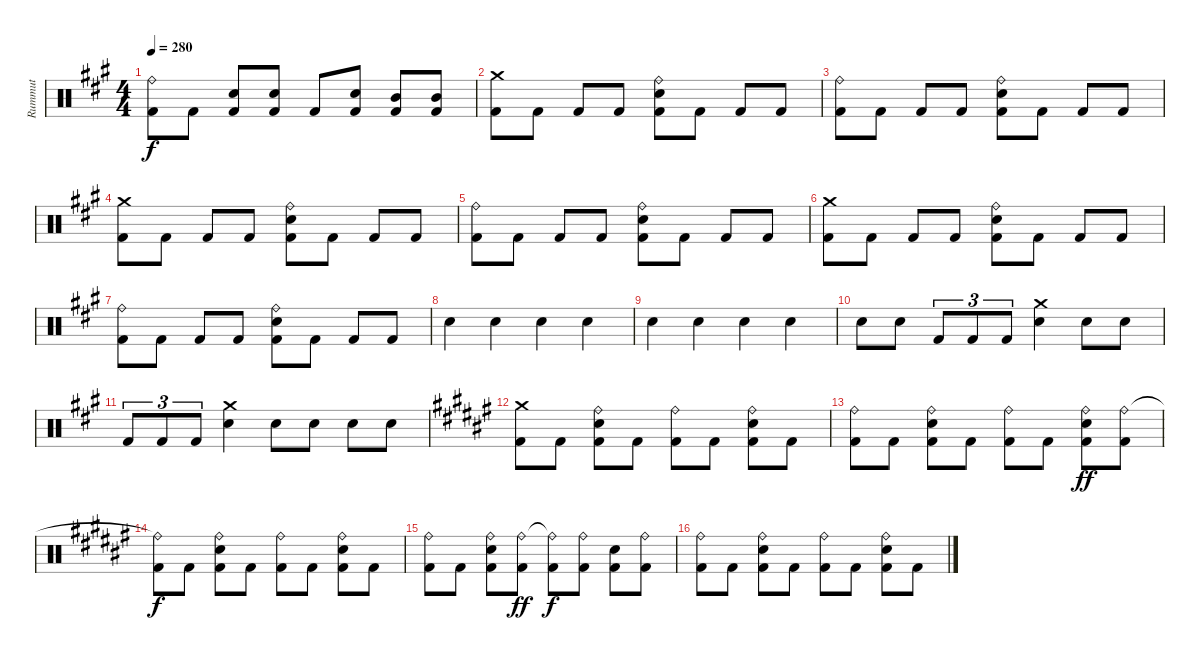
\track ("Rummut" "Rummut") {instrument percussion}
\staff {score}
\articulation defaults
\ts (4 4)
\tempo 280
\clef neutral
\ks a
("Ride (bell)" "Kick (hit) 2").8{dy f} "Kick (hit) 2".8 ("Snare (hit) 2" "Kick (hit) 2").8 ("Snare (hit) 2" "Kick (hit) 2").8 "Kick (hit) 2".8 ("Snare (hit) 2" "Kick (hit) 2").8 ("Mid Tom (hit)" "Kick (hit) 2").8 ("Mid Tom (hit)" "Kick (hit) 2").8 |
("Crash medium (hit)" "Kick (hit) 2").8 "Kick (hit) 2".8 "Kick (hit) 2".8 "Kick (hit) 2".8 ("Ride (bell)" "Snare (hit) 2" "Kick (hit) 2").8 "Kick (hit) 2".8 "Kick (hit) 2".8 "Kick (hit) 2".8 |
("Ride (bell)" "Kick (hit) 2").8 "Kick (hit) 2".8 "Kick (hit) 2".8 "Kick (hit) 2".8 ("Ride (bell)" "Snare (hit) 2" "Kick (hit) 2").8 "Kick (hit) 2".8 "Kick (hit) 2".8 "Kick (hit) 2".8 |
("Crash medium (hit)" "Kick (hit) 2").8 "Kick (hit) 2".8 "Kick (hit) 2".8 "Kick (hit) 2".8 ("Ride (bell)" "Snare (hit) 2" "Kick (hit) 2").8 "Kick (hit) 2".8 "Kick (hit) 2".8 "Kick (hit) 2".8 |
("Ride (bell)" "Kick (hit) 2").8 "Kick (hit) 2".8 "Kick (hit) 2".8 "Kick (hit) 2".8 ("Ride (bell)" "Snare (hit) 2" "Kick (hit) 2").8 "Kick (hit) 2".8 "Kick (hit) 2".8 "Kick (hit) 2".8 |
("Crash medium (hit)" "Kick (hit) 2").8 "Kick (hit) 2".8 "Kick (hit) 2".8 "Kick (hit) 2".8 ("Ride (bell)" "Snare (hit) 2" "Kick (hit) 2").8 "Kick (hit) 2".8 "Kick (hit) 2".8 "Kick (hit) 2".8 |
("Ride (bell)" "Kick (hit) 2").8 "Kick (hit) 2".8 "Kick (hit) 2".8 "Kick (hit) 2".8 ("Ride (bell)" "Snare (hit) 2" "Kick (hit) 2").8 "Kick (hit) 2".8 "Kick (hit) 2".8 "Kick (hit) 2".8 |
"Snare (hit) 2".4 "Snare (hit) 2".4 "Snare (hit) 2".4 "Snare (hit) 2".4 |
"Snare (hit) 2".4 "Snare (hit) 2".4 "Snare (hit) 2".4 "Snare (hit) 2".4 |
"Snare (hit) 2".8 "Snare (hit) 2".8 "Kick (hit) 2".8{tu (3 2)} "Kick (hit) 2".8{tu (3 2)} "Kick (hit) 2".8{tu (3 2)} ("Crash medium (hit)" "Snare (hit) 2").4 "Snare (hit) 2".8 "Snare (hit) 2".8 |
"Kick (hit) 2".8{tu (3 2)} "Kick (hit) 2".8{tu (3 2)} "Kick (hit) 2".8{tu (3 2)} ("Crash medium (hit)" "Snare (hit) 2").4 "Snare (hit) 2".8 "Snare (hit) 2".8 "Snare (hit) 2".8 "Snare (hit) 2".8 |
\ks f#
("Crash medium (hit)" "Kick (hit) 2").8 "Kick (hit) 2".8 ("Ride (bell)" "Snare (hit) 2" "Kick (hit) 2").8 "Kick (hit) 2".8 ("Ride (bell)" "Kick (hit) 2").8 "Kick (hit) 2".8 ("Ride (bell)" "Snare (hit) 2" "Kick (hit) 2").8 "Kick (hit) 2".8 |
("Ride (bell)" "Kick (hit) 2").8 "Kick (hit) 2".8 ("Ride (bell)" "Snare (hit) 2" "Kick (hit) 2").8 "Kick (hit) 2".8 ("Ride (bell)" "Kick (hit) 2").8 "Kick (hit) 2".8 ("Ride (bell)" "Snare (hit) 2" "Kick (hit) 2").8{dy ff} ("Ride (bell)" "Kick (hit) 2").8 |
("Ride (bell)"{t} "Kick (hit) 2").8{dy f} "Kick (hit) 2".8 ("Ride (bell)" "Snare (hit) 2" "Kick (hit) 2").8 "Kick (hit) 2".8 ("Ride (bell)" "Kick (hit) 2").8 "Kick (hit) 2".8 ("Ride (bell)" "Snare (hit) 2" "Kick (hit) 2").8 "Kick (hit) 2".8 |
("Ride (bell)" "Kick (hit) 2").8 "Kick (hit) 2".8 ("Ride (bell)" "Snare (hit) 2" "Kick (hit) 2").8 ("Ride (bell)" "Kick (hit) 2").8{dy ff} ("Ride (bell)"{t} "Kick (hit) 2").8{dy f} ("Ride (bell)" "Kick (hit) 2").8 ("Snare (hit) 2" "Kick (hit) 2").8 ("Ride (bell)" "Kick (hit) 2").8 |
("Ride (bell)" "Kick (hit) 2").8 "Kick (hit) 2".8 ("Ride (bell)" "Snare (hit) 2" "Kick (hit) 2").8 "Kick (hit) 2".8 ("Ride (bell)" "Kick (hit) 2").8 "Kick (hit) 2".8 ("Ride (bell)" "Snare (hit) 2" "Kick (hit) 2").8 "Kick (hit) 2".8
